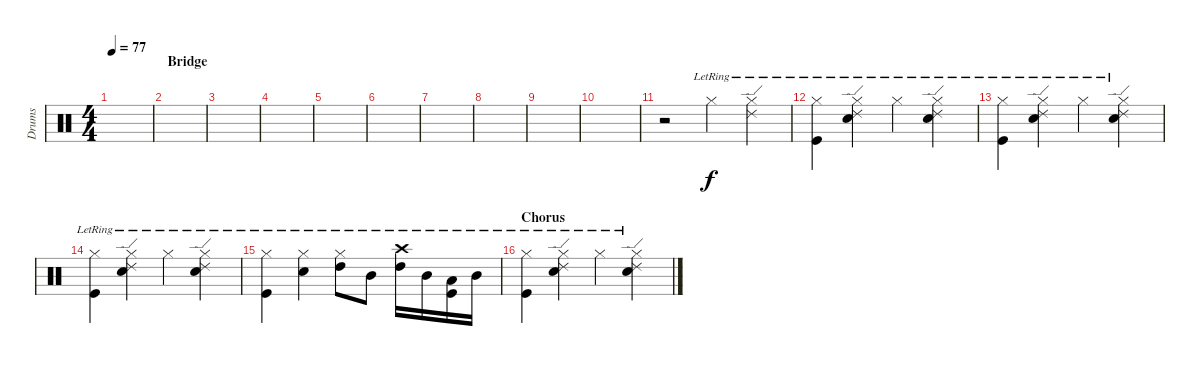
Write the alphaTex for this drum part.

\track ("Drums" "Drums") {instrument percussion}
\staff {score}
\articulation defaults
\ts (4 4)
\tempo 77
\clef neutral
\ks c
|
\section ("" "Bridge")
|
|
|
|
|
|
|
|
|
r.2 "Hi-Hat (closed)"{lr}.4 ("Hi-Hat (closed)"{lr} "Ride (edge) 2"{lr}).4 |
("Hi-Hat (closed)"{lr} "Kick (hit)"{lr}).4 ("Hi-Hat (closed)"{lr} "Snare (hit) 2"{lr} "Ride (edge) 2"{lr}).4 "Hi-Hat (closed)"{lr}.4 ("Hi-Hat (closed)"{lr} "Snare (hit) 2"{lr} "Ride (edge) 2"{lr}).4 |
("Hi-Hat (closed)"{lr} "Kick (hit)"{lr}).4 ("Hi-Hat (closed)"{lr} "Snare (hit) 2"{lr} "Ride (edge) 2"{lr}).4 "Hi-Hat (closed)"{lr}.4 ("Hi-Hat (closed)"{lr} "Snare (hit) 2"{lr} "Ride (edge) 2"{lr}).4 |
("Hi-Hat (closed)"{lr} "Kick (hit)"{lr}).4 ("Hi-Hat (closed)"{lr} "Snare (hit) 2"{lr} "Ride (edge) 2"{lr}).4 "Hi-Hat (closed)"{lr}.4 ("Hi-Hat (closed)"{lr} "Snare (hit) 2"{lr} "Ride (edge) 2"{lr}).4 |
("Hi-Hat (closed)"{lr} "Kick (hit)"{lr}).4 ("Hi-Hat (closed)"{lr} "Snare (hit) 2"{lr}).4 ("Hi-Hat (closed)"{lr} "High Tom (hit)"{lr}).8 "Mid Tom (hit)"{lr}.8 ("Crash high (hit)"{lr} "High Tom (hit)"{lr}).16 "Mid Tom (hit)"{lr}.16 ("Low Tom (hit)"{lr} "Kick (hit)"{lr}).16 "Mid Tom (hit)"{lr}.16 |
\section ("" "Chorus")
("Hi-Hat (closed)"{lr} "Kick (hit)"{lr}).4 ("Hi-Hat (closed)"{lr} "Snare (hit) 2"{lr} "Ride (edge) 2"{lr}).4 "Hi-Hat (closed)"{lr}.4 ("Hi-Hat (closed)"{lr} "Snare (hit) 2"{lr} "Ride (edge) 2"{lr}).4
